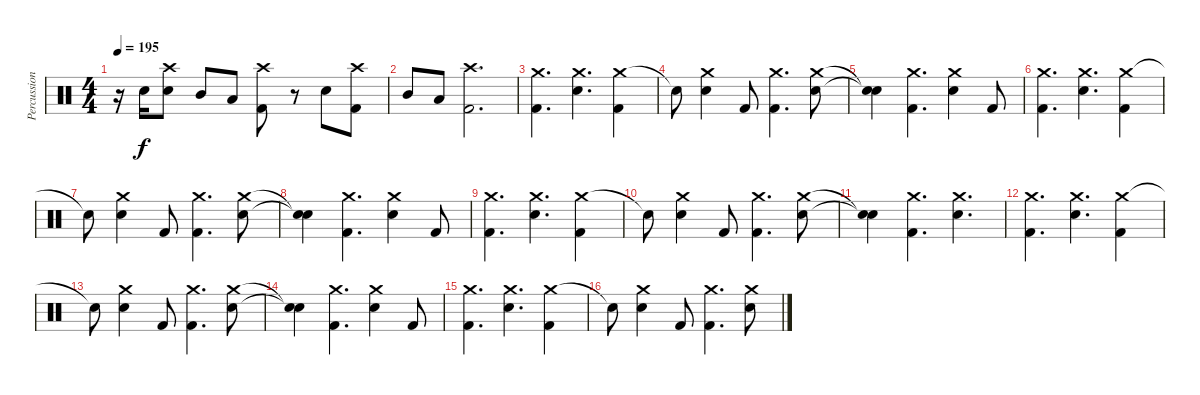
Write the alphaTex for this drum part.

\track ("Percussion" "Percussion") {instrument percussion}
\staff {score}
\articulation defaults
\ts (4 4)
\tempo 195
\clef neutral
\ks c
r.16{dy f} "Electric Snare (hit)".16 ("Crash high (hit)" "Electric Snare (hit)").8 "Mid Tom (hit)".8 "Low Tom (hit)".8 ("Crash high (hit)" "Kick (hit) 2").8 r.8 "Electric Snare (hit)".8 ("Crash high (hit)" "Kick (hit) 2").8 |
"Mid Tom (hit)".8 "Low Tom (hit)".8 ("Crash high (hit)" "Kick (hit) 2").2{d} |
("Crash medium (hit)" "Kick (hit) 2").4{d} ("Crash medium (hit)" "Electric Snare (hit)").4{d} ("Crash medium (hit)" "Kick (hit) 2").4 |
"Snare (hit)"{t}.8 ("Crash medium (hit)" "Electric Snare (hit)").4 "Kick (hit) 2".8 ("Crash medium (hit)" "Kick (hit) 2").4{d} ("Crash medium (hit)" "Electric Snare (hit)").8 |
("Snare (hit)"{t} "Snare (hit)"{t}).4 ("Crash medium (hit)" "Kick (hit) 2").4{d} ("Crash medium (hit)" "Electric Snare (hit)").4 "Kick (hit) 2".8 |
("Crash medium (hit)" "Kick (hit) 2").4{d} ("Crash medium (hit)" "Electric Snare (hit)").4{d} ("Crash medium (hit)" "Kick (hit) 2").4 |
"Snare (hit)"{t}.8 ("Crash medium (hit)" "Electric Snare (hit)").4 "Kick (hit) 2".8 ("Crash medium (hit)" "Kick (hit) 2").4{d} ("Crash medium (hit)" "Electric Snare (hit)").8 |
("Snare (hit)"{t} "Snare (hit)"{t}).4 ("Crash medium (hit)" "Kick (hit) 2").4{d} ("Crash medium (hit)" "Electric Snare (hit)").4 "Kick (hit) 2".8 |
("Crash medium (hit)" "Kick (hit) 2").4{d} ("Crash medium (hit)" "Electric Snare (hit)").4{d} ("Crash medium (hit)" "Kick (hit) 2").4 |
"Snare (hit)"{t}.8 ("Crash medium (hit)" "Electric Snare (hit)").4 "Kick (hit) 2".8 ("Crash medium (hit)" "Kick (hit) 2").4{d} ("Crash medium (hit)" "Electric Snare (hit)").8 |
("Snare (hit)"{t} "Snare (hit)"{t}).4 ("Crash medium (hit)" "Kick (hit) 2").4{d} ("Crash medium (hit)" "Electric Snare (hit)").4{d} |
("Crash medium (hit)" "Kick (hit) 2").4{d} ("Crash medium (hit)" "Electric Snare (hit)").4{d} ("Crash medium (hit)" "Kick (hit) 2").4 |
"Snare (hit)"{t}.8 ("Crash medium (hit)" "Electric Snare (hit)").4 "Kick (hit) 2".8 ("Crash medium (hit)" "Kick (hit) 2").4{d} ("Crash medium (hit)" "Electric Snare (hit)").8 |
("Snare (hit)"{t} "Snare (hit)"{t}).4 ("Crash medium (hit)" "Kick (hit) 2").4{d} ("Crash medium (hit)" "Electric Snare (hit)").4 "Kick (hit) 2".8 |
("Crash medium (hit)" "Kick (hit) 2").4{d} ("Crash medium (hit)" "Electric Snare (hit)").4{d} ("Crash medium (hit)" "Kick (hit) 2").4 |
"Snare (hit)"{t}.8 ("Crash medium (hit)" "Electric Snare (hit)").4 "Kick (hit) 2".8 ("Crash medium (hit)" "Kick (hit) 2").4{d} ("Crash medium (hit)" "Electric Snare (hit)").8
